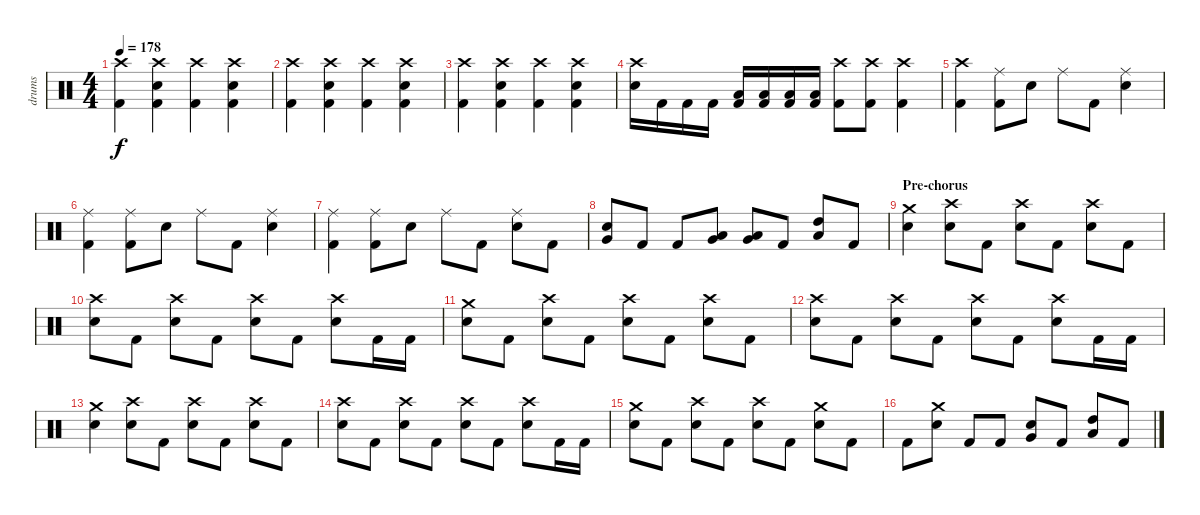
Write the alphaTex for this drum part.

\track ("drums" "drums") {instrument percussion}
\staff {score}
\articulation defaults
\ts (4 4)
\tempo 178
\clef neutral
\ks c
("Crash high (hit)" "Kick (hit) 2").4{dy f} ("Crash high (hit)" "Electric Snare (hit)" "Kick (hit) 2").4 ("Crash high (hit)" "Kick (hit) 2").4 ("Crash high (hit)" "Electric Snare (hit)" "Kick (hit) 2").4 |
("Crash high (hit)" "Kick (hit) 2").4 ("Crash high (hit)" "Electric Snare (hit)" "Kick (hit) 2").4 ("Crash high (hit)" "Kick (hit) 2").4 ("Crash high (hit)" "Electric Snare (hit)" "Kick (hit) 2").4 |
("Crash high (hit)" "Kick (hit) 2").4 ("Crash high (hit)" "Electric Snare (hit)" "Kick (hit) 2").4 ("Crash high (hit)" "Kick (hit) 2").4 ("Crash high (hit)" "Electric Snare (hit)" "Kick (hit) 2").4 |
("Crash high (hit)" "Electric Snare (hit)").16 "Kick (hit) 2".16 "Kick (hit) 2".16 "Kick (hit) 2".16 ("Low Tom (hit)" "Kick (hit) 2").16 ("Low Tom (hit)" "Kick (hit) 2").16 ("Low Tom (hit)" "Kick (hit) 2").16 ("Low Tom (hit)" "Kick (hit) 2").16 ("Crash high (hit)" "Kick (hit) 2").8 ("Crash high (hit)" "Kick (hit) 2").8 ("Crash high (hit)" "Kick (hit) 2").4 |
("Crash high (hit)" "Kick (hit) 2").4 ("Ride (middle)" "Kick (hit) 2").8 "Electric Snare (hit)".8 "Ride (middle)".8 "Kick (hit) 2".8 ("Ride (middle)" "Electric Snare (hit)").4 |
("Ride (middle)" "Kick (hit) 2").4 ("Ride (middle)" "Kick (hit) 2").8 "Electric Snare (hit)".8 "Ride (middle)".8 "Kick (hit) 2".8 ("Ride (middle)" "Electric Snare (hit)").4 |
("Ride (middle)" "Kick (hit) 2").4 ("Ride (middle)" "Kick (hit) 2").8 "Electric Snare (hit)".8 "Ride (middle)".8 "Kick (hit) 2".8 ("Ride (middle)" "Electric Snare (hit)").8 "Kick (hit) 2".8 |
("Very Low Tom (hit)" "Electric Snare (hit)").8 "Kick (hit) 2".8 "Kick (hit) 2".8 ("Very Low Tom (hit)" "Low Tom (hit)").8 ("Very Low Tom (hit)" "Low Tom (hit)").8 "Kick (hit) 2".8 ("High Tom (hit)" "Low Tom (hit)").8 "Kick (hit) 2".8 |
\section ("" "Pre-chorus")
("Crash medium (hit)" "Electric Snare (hit)").4 ("Crash high (hit)" "Electric Snare (hit)").8 "Kick (hit) 2".8 ("Crash high (hit)" "Electric Snare (hit)").8 "Kick (hit) 2".8 ("Crash high (hit)" "Electric Snare (hit)").8 "Kick (hit) 2".8 |
("Crash high (hit)" "Electric Snare (hit)").8 "Kick (hit) 2".8 ("Crash high (hit)" "Electric Snare (hit)").8 "Kick (hit) 2".8 ("Crash high (hit)" "Electric Snare (hit)").8 "Kick (hit) 2".8 ("Crash high (hit)" "Electric Snare (hit)").8 "Kick (hit) 2".16 "Kick (hit) 2".16 |
("Crash medium (hit)" "Electric Snare (hit)").8 "Kick (hit) 2".8 ("Crash high (hit)" "Electric Snare (hit)").8 "Kick (hit) 2".8 ("Crash high (hit)" "Electric Snare (hit)").8 "Kick (hit) 2".8 ("Crash high (hit)" "Electric Snare (hit)").8 "Kick (hit) 2".8 |
("Crash high (hit)" "Electric Snare (hit)").8 "Kick (hit) 2".8 ("Crash high (hit)" "Electric Snare (hit)").8 "Kick (hit) 2".8 ("Crash high (hit)" "Electric Snare (hit)").8 "Kick (hit) 2".8 ("Crash high (hit)" "Electric Snare (hit)").8 "Kick (hit) 2".16 "Kick (hit) 2".16 |
("Crash medium (hit)" "Electric Snare (hit)").4 ("Crash high (hit)" "Electric Snare (hit)").8 "Kick (hit) 2".8 ("Crash high (hit)" "Electric Snare (hit)").8 "Kick (hit) 2".8 ("Crash high (hit)" "Electric Snare (hit)").8 "Kick (hit) 2".8 |
("Crash high (hit)" "Electric Snare (hit)").8 "Kick (hit) 2".8 ("Crash high (hit)" "Electric Snare (hit)").8 "Kick (hit) 2".8 ("Crash high (hit)" "Electric Snare (hit)").8 "Kick (hit) 2".8 ("Crash high (hit)" "Electric Snare (hit)").8 "Kick (hit) 2".16 "Kick (hit) 2".16 |
("Crash medium (hit)" "Electric Snare (hit)").8 "Kick (hit) 2".8 ("Crash high (hit)" "Electric Snare (hit)").8 "Kick (hit) 2".8 ("Crash high (hit)" "Electric Snare (hit)").8 "Kick (hit) 2".8 ("Crash medium (hit)" "Electric Snare (hit)").8 "Kick (hit) 2".8 |
"Kick (hit) 2".8 ("Crash medium (hit)" "Electric Snare (hit)").8 "Kick (hit) 2".8 "Kick (hit) 2".8 ("Very Low Tom (hit)" "Electric Snare (hit)").8 "Kick (hit) 2".8 ("High Tom (hit)" "Low Tom (hit)").8 "Kick (hit) 2".8
